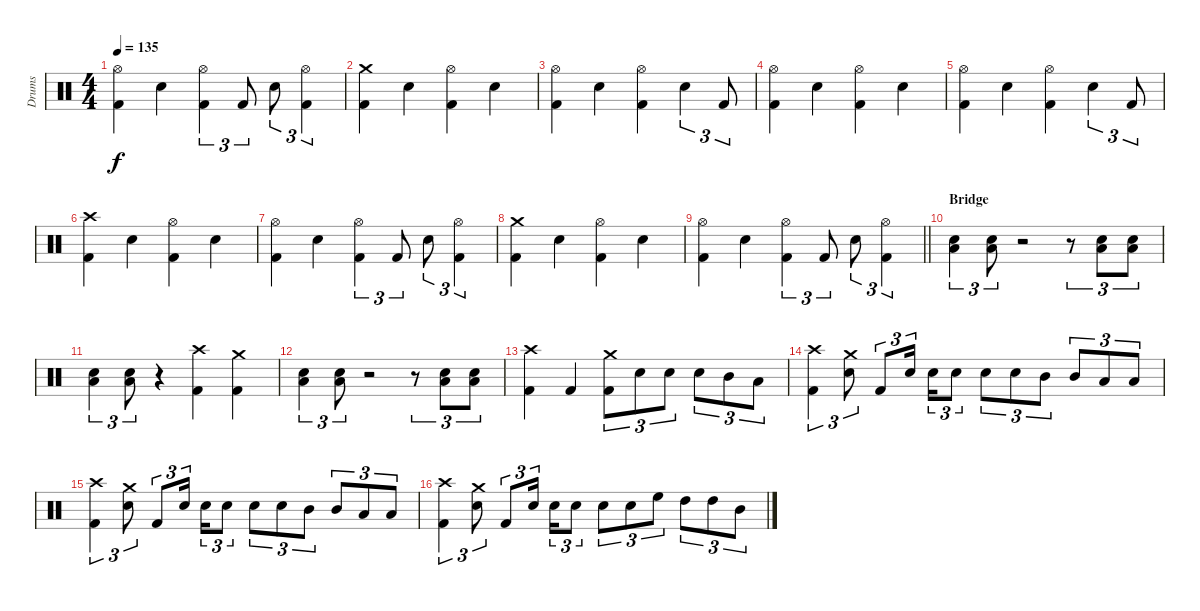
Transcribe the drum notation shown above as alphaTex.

\track ("Drums" "Drums") {instrument percussion}
\staff {score}
\articulation defaults
\ts (4 4)
\tempo 135
\clef neutral
\ks c
("Hi-Hat (open)" "Kick (hit) 2").4{dy f} "Snare (hit) 2".4 ("Hi-Hat (open)" "Kick (hit) 2").4{tu (3 2)} "Kick (hit) 2".8{tu (3 2)} "Snare (hit) 2".8{tu (3 2)} ("Hi-Hat (open)" "Kick (hit) 2").4{tu (3 2)} |
("Crash medium (hit)" "Kick (hit) 2").4 "Snare (hit) 2".4 ("Hi-Hat (open)" "Kick (hit) 2").4 "Snare (hit) 2".4 |
("Hi-Hat (open)" "Kick (hit) 2").4 "Snare (hit) 2".4 ("Hi-Hat (open)" "Kick (hit) 2").4 "Snare (hit) 2".4{tu (3 2)} "Kick (hit) 2".8{tu (3 2)} |
("Hi-Hat (open)" "Kick (hit) 2").4 "Snare (hit) 2".4 ("Hi-Hat (open)" "Kick (hit) 2").4 "Snare (hit) 2".4 |
("Hi-Hat (open)" "Kick (hit) 2").4 "Snare (hit) 2".4 ("Hi-Hat (open)" "Kick (hit) 2").4 "Snare (hit) 2".4{tu (3 2)} "Kick (hit) 2".8{tu (3 2)} |
("Crash high (hit)" "Kick (hit) 2").4 "Snare (hit) 2".4 ("Hi-Hat (open)" "Kick (hit) 2").4 "Snare (hit) 2".4 |
("Hi-Hat (open)" "Kick (hit) 2").4 "Snare (hit) 2".4 ("Hi-Hat (open)" "Kick (hit) 2").4{tu (3 2)} "Kick (hit) 2".8{tu (3 2)} "Snare (hit) 2".8{tu (3 2)} ("Hi-Hat (open)" "Kick (hit) 2").4{tu (3 2)} |
("Crash medium (hit)" "Kick (hit) 2").4 "Snare (hit) 2".4 ("Hi-Hat (open)" "Kick (hit) 2").4 "Snare (hit) 2".4 |
\barLineRight lightlight
("Hi-Hat (open)" "Kick (hit) 2").4 "Snare (hit) 2".4 ("Hi-Hat (open)" "Kick (hit) 2").4{tu (3 2)} "Kick (hit) 2".8{tu (3 2)} "Snare (hit) 2".8{tu (3 2)} ("Hi-Hat (open)" "Kick (hit) 2").4{tu (3 2)} |
\section ("" "Bridge")
("Snare (hit) 2" "Low Tom (hit)").4{tu (3 2)} ("Snare (hit) 2" "Low Tom (hit)").8{tu (3 2)} r.2 r.8{tu (3 2)} ("Snare (hit) 2" "Low Tom (hit)").8{tu (3 2)} ("Snare (hit) 2" "Low Tom (hit)").8{tu (3 2)} |
("Snare (hit) 2" "Low Tom (hit)").4{tu (3 2)} ("Snare (hit) 2" "Low Tom (hit)").8{tu (3 2)} r.4 ("Crash high (hit)" "Kick (hit) 2").4 ("Crash medium (hit)" "Kick (hit) 2").4 |
("Snare (hit) 2" "Low Tom (hit)").4{tu (3 2)} ("Snare (hit) 2" "Low Tom (hit)").8{tu (3 2)} r.2 r.8{tu (3 2)} ("Snare (hit) 2" "Low Tom (hit)").8{tu (3 2)} ("Snare (hit) 2" "Low Tom (hit)").8{tu (3 2)} |
("Crash high (hit)" "Kick (hit) 2").4 "Kick (hit) 2".4 ("Crash medium (hit)" "Kick (hit) 2").8{tu (3 2)} "Snare (hit) 2".8{tu (3 2)} "Snare (hit) 2".8{tu (3 2)} "Snare (hit) 2".8{tu (3 2)} "Mid Tom (hit)".8{tu (3 2)} "Low Tom (hit)".8{tu (3 2)} |
("Crash high (hit)" "Kick (hit) 2").4{tu (3 2)} ("Crash medium (hit)" "Snare (hit) 2").8{tu (3 2)} "Kick (hit) 2".8{tu (3 2)} "Snare (hit) 2".16{tu (3 2) beam splitsecondary} "Snare (hit) 2".16{tu (3 2)} "Snare (hit) 2".8{tu (3 2)} "Snare (hit) 2".8{tu (3 2)} "Snare (hit) 2".8{tu (3 2)} "Mid Tom (hit)".8{tu (3 2)} "Mid Tom (hit)".8{tu (3 2)} "Low Tom (hit)".8{tu (3 2)} "Low Tom (hit)".8{tu (3 2)} |
("Crash high (hit)" "Kick (hit) 2").4{tu (3 2)} ("Crash medium (hit)" "Snare (hit) 2").8{tu (3 2)} "Kick (hit) 2".8{tu (3 2)} "Snare (hit) 2".16{tu (3 2) beam splitsecondary} "Snare (hit) 2".16{tu (3 2)} "Snare (hit) 2".8{tu (3 2)} "Snare (hit) 2".8{tu (3 2)} "Snare (hit) 2".8{tu (3 2)} "Mid Tom (hit)".8{tu (3 2)} "Mid Tom (hit)".8{tu (3 2)} "Low Tom (hit)".8{tu (3 2)} "Low Tom (hit)".8{tu (3 2)} |
("Crash high (hit)" "Kick (hit) 2").4{tu (3 2)} ("Crash medium (hit)" "Snare (hit) 2").8{tu (3 2)} "Kick (hit) 2".8{tu (3 2)} "Snare (hit) 2".16{tu (3 2) beam splitsecondary} "Snare (hit) 2".16{tu (3 2)} "Snare (hit) 2".8{tu (3 2)} "Snare (hit) 2".8{tu (3 2)} "Snare (hit) 2".8{tu (3 2)} "High Floor Tom (hit)".8{tu (3 2)} "High Tom (hit)".8{tu (3 2)} "High Tom (hit)".8{tu (3 2)} "Mid Tom (hit)".8{tu (3 2)}
